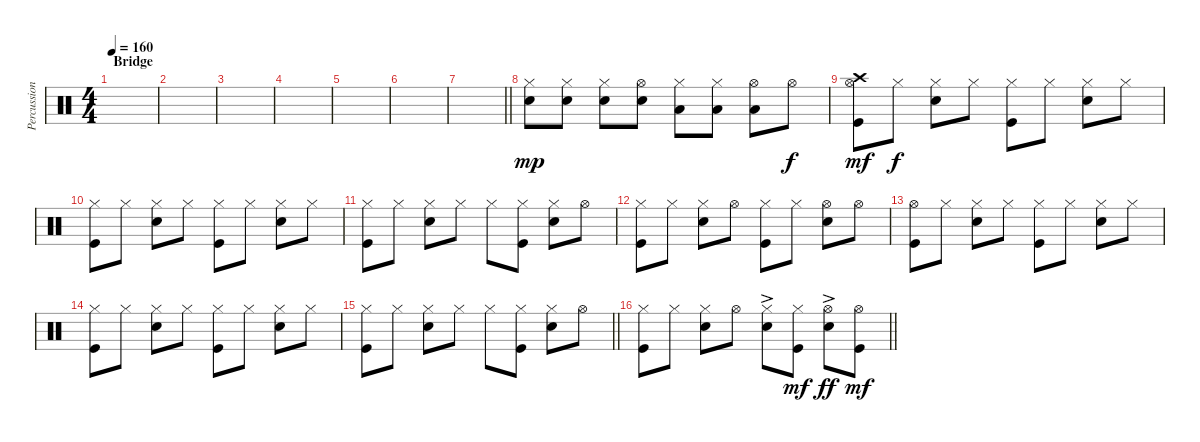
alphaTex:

\track ("Percussioni" "Percussion") {instrument percussion}
\staff {score}
\articulation defaults
\ts (4 4)
\section ("" "Bridge")
\tempo 160
\clef neutral
\ks c
|
|
|
|
|
|
\barLineRight lightlight
|
("Snare (hit) 2" "Hi-Hat (closed)").8{dy mp} ("Snare (hit) 2" "Hi-Hat (closed)").8 ("Snare (hit) 2" "Hi-Hat (closed)").8 ("Snare (hit) 2" "Hi-Hat (open)").8 ("Low Tom (hit)" "Hi-Hat (closed)").8 ("Low Tom (hit)" "Hi-Hat (closed)").8 ("Low Tom (hit)" "Hi-Hat (open)").8 "Hi-Hat (open)".8{dy f} |
("Crash high (hit)" "Hi-Hat (open)" "Kick (hit)").8{dy mf} "Hi-Hat (closed)".8{dy f} ("Hi-Hat (closed)" "Snare (hit) 2").8 "Hi-Hat (closed)".8 ("Hi-Hat (closed)" "Kick (hit)").8 "Hi-Hat (closed)".8 ("Hi-Hat (closed)" "Snare (hit) 2").8 "Hi-Hat (closed)".8 |
("Hi-Hat (closed)" "Kick (hit)").8 "Hi-Hat (closed)".8 ("Hi-Hat (closed)" "Snare (hit) 2").8 "Hi-Hat (closed)".8 ("Hi-Hat (closed)" "Kick (hit)").8 "Hi-Hat (closed)".8 ("Hi-Hat (closed)" "Snare (hit) 2").8 "Hi-Hat (closed)".8 |
("Hi-Hat (closed)" "Kick (hit)").8 "Hi-Hat (closed)".8 ("Hi-Hat (closed)" "Snare (hit) 2").8 "Hi-Hat (closed)".8 "Hi-Hat (closed)".8 ("Hi-Hat (closed)" "Kick (hit)").8 ("Hi-Hat (closed)" "Snare (hit) 2").8 "Hi-Hat (open)".8 |
("Hi-Hat (closed)" "Kick (hit)").8 "Hi-Hat (closed)".8 ("Hi-Hat (closed)" "Snare (hit) 2").8 "Hi-Hat (open)".8 ("Hi-Hat (closed)" "Kick (hit)").8 "Hi-Hat (closed)".8 ("Hi-Hat (open)" "Snare (hit) 2").8 "Hi-Hat (open)".8 |
("Hi-Hat (open)" "Kick (hit)").8 "Hi-Hat (closed)".8 ("Hi-Hat (closed)" "Snare (hit) 2").8 "Hi-Hat (closed)".8 ("Hi-Hat (closed)" "Kick (hit)").8 "Hi-Hat (closed)".8 ("Hi-Hat (closed)" "Snare (hit) 2").8 "Hi-Hat (closed)".8 |
("Hi-Hat (closed)" "Kick (hit)").8 "Hi-Hat (closed)".8 ("Hi-Hat (closed)" "Snare (hit) 2").8 "Hi-Hat (closed)".8 ("Hi-Hat (closed)" "Kick (hit)").8 "Hi-Hat (closed)".8 ("Hi-Hat (closed)" "Snare (hit) 2").8 "Hi-Hat (closed)".8 |
\barLineRight lightlight
("Hi-Hat (closed)" "Kick (hit)").8 "Hi-Hat (closed)".8 ("Hi-Hat (closed)" "Snare (hit) 2").8 "Hi-Hat (closed)".8 "Hi-Hat (closed)".8 ("Hi-Hat (closed)" "Kick (hit)").8 ("Hi-Hat (closed)" "Snare (hit) 2").8 "Hi-Hat (open)".8 |
\barLineRight lightlight
("Hi-Hat (closed)" "Kick (hit)").8 "Hi-Hat (closed)".8 ("Hi-Hat (closed)" "Snare (hit) 2").8 "Hi-Hat (open)".8 ("Hi-Hat (closed)" "Snare (hit) 2"{ac}).8 ("Hi-Hat (closed)" "Kick (hit)").8{dy mf} ("Hi-Hat (open)" "Snare (hit) 2"{ac}).8{dy ff} ("Hi-Hat (open)" "Kick (hit)").8{dy mf}
